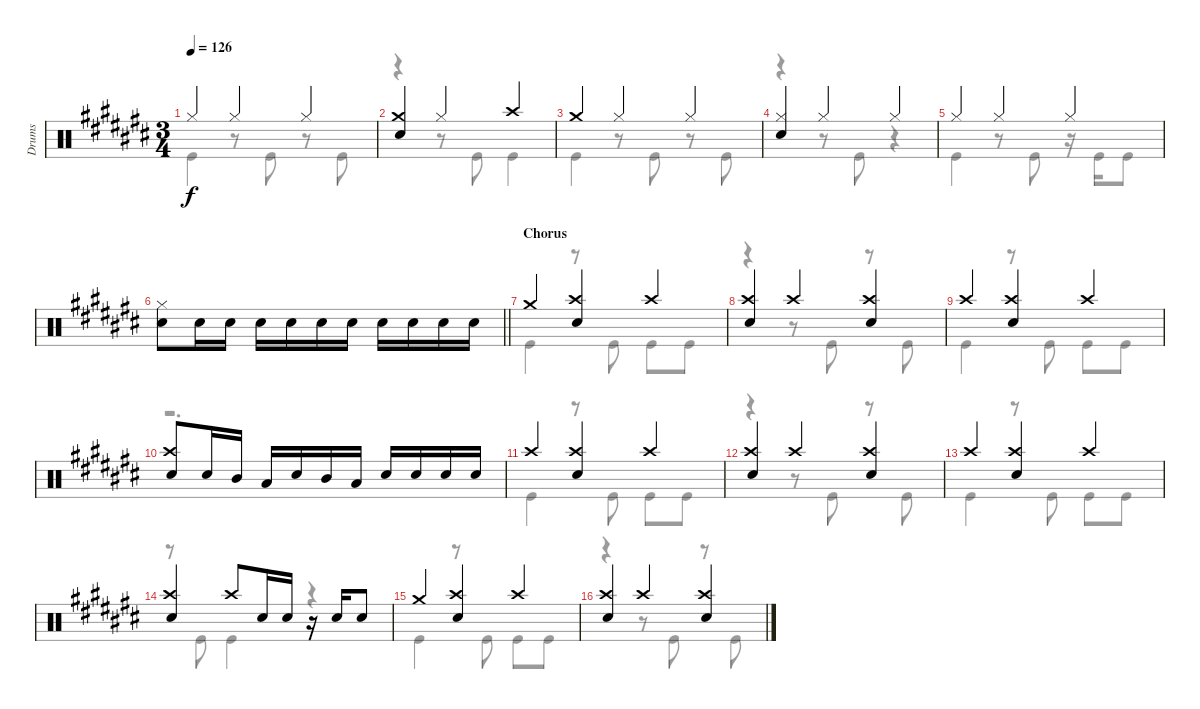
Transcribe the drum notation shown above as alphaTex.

\track ("Drums" "Drums") {instrument percussion}
\staff {score}
\articulation defaults
\voice
\ts (3 4)
\tempo 126
\clef neutral
\ks c# "Hi-Hat (closed)".4{dy f} "Hi-Hat (closed)".4 "Hi-Hat (closed)".4
|
("Crash medium (hit)" "Snare (hit) 2").4 "Hi-Hat (closed)".4 "Crash high (hit)".4 |
"Crash medium (hit)".4 "Hi-Hat (closed)".4 "Hi-Hat (closed)".4 |
("Hi-Hat (closed)" "Snare (hit) 2").4 "Hi-Hat (closed)".4 "Hi-Hat (closed)".4 |
"Hi-Hat (closed)".4 "Hi-Hat (closed)".4 "Hi-Hat (closed)".4 |
\barLineRight lightlight
("Hi-Hat (closed)" "Snare (hit) 2").8 "Snare (hit) 2".16 "Snare (hit) 2".16 "Snare (hit) 2".16 "Snare (hit) 2".16 "Snare (hit) 2".16 "Snare (hit) 2".16 "Snare (hit) 2".16 "Snare (hit) 2".16 "Snare (hit) 2".16 "Snare (hit) 2".16 |
\section ("" "Chorus")
"Crash medium (hit)".4 ("Crash high (hit)" "Electric Snare (hit)").4 "Crash high (hit)".4 |
("Crash high (hit)" "Electric Snare (hit)").4 "Crash high (hit)".4 ("Crash high (hit)" "Electric Snare (hit)").4 |
"Crash high (hit)".4 ("Crash high (hit)" "Electric Snare (hit)").4 "Crash high (hit)".4 |
("Crash high (hit)" "Electric Snare (hit)").8{beam merge} "Electric Snare (hit)".16 "Mid Tom (hit)".16 "Low Tom (hit)".16 "Electric Snare (hit)".16 "Mid Tom (hit)".16 "Low Tom (hit)".16 "Electric Snare (hit)".16 "Electric Snare (hit)".16 "Electric Snare (hit)".16 "Electric Snare (hit)".16 |
"Crash high (hit)".4 ("Crash high (hit)" "Electric Snare (hit)").4 "Crash high (hit)".4 |
("Crash high (hit)" "Electric Snare (hit)").4 "Crash high (hit)".4 ("Crash high (hit)" "Electric Snare (hit)").4 |
"Crash high (hit)".4 ("Crash high (hit)" "Electric Snare (hit)").4 "Crash high (hit)".4 |
("Crash high (hit)" "Electric Snare (hit)").4 "Crash high (hit)".8 "Electric Snare (hit)".16 "Electric Snare (hit)".16 r.16 "Electric Snare (hit)".16 "Electric Snare (hit)".8 |
"Crash medium (hit)".4 ("Crash high (hit)" "Electric Snare (hit)").4 "Crash high (hit)".4 |
("Crash high (hit)" "Electric Snare (hit)").4 "Crash high (hit)".4 ("Crash high (hit)" "Electric Snare (hit)").4
\voice
\clef neutral
\ottava regular
\simile none
\ks c# "Kick (hit)".4{dy f}
r.8 "Kick (hit)".8 r.8 "Kick (hit)".8 |
r.4 r.8 "Kick (hit)".8 "Kick (hit)".4 |
"Kick (hit)".4 r.8 "Kick (hit)".8 r.8 "Kick (hit)".8 |
r.4 r.8 "Kick (hit)".8 r.4 |
"Kick (hit)".4 r.8 "Kick (hit)".8 r.16 "Kick (hit)".16 "Kick (hit)".8 |
\barLineRight lightlight
|
"Kick (hit)".4 r.8 "Kick (hit)".8{beam split} "Kick (hit)".8 "Kick (hit)".8 |
r.4 r.8 "Kick (hit)".8{beam split} r.8 "Kick (hit)".8 |
"Kick (hit)".4 r.8 "Kick (hit)".8{beam split} "Kick (hit)".8 "Kick (hit)".8 |
r.2{d} |
"Kick (hit)".4 r.8 "Kick (hit)".8{beam split} "Kick (hit)".8 "Kick (hit)".8 |
r.4 r.8 "Kick (hit)".8{beam split} r.8 "Kick (hit)".8 |
"Kick (hit)".4 r.8 "Kick (hit)".8{beam split} "Kick (hit)".8 "Kick (hit)".8 |
r.8 "Kick (hit)".8 "Kick (hit)".4 r.4 |
"Kick (hit)".4 r.8 "Kick (hit)".8{beam split} "Kick (hit)".8 "Kick (hit)".8 |
r.4 r.8 "Kick (hit)".8{beam split} r.8 "Kick (hit)".8
